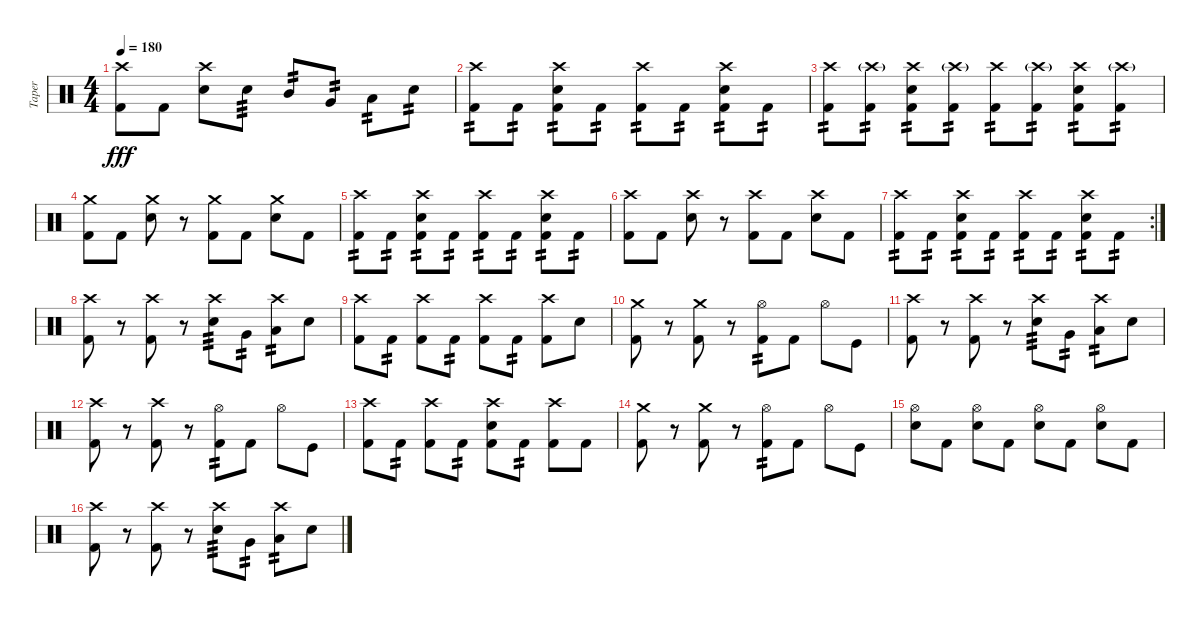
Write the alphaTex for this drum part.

\track ("Taper" "Taper") {instrument percussion}
\staff {score}
\articulation defaults
\ts (4 4)
\tempo 180
\clef neutral
\ks c
("Crash high (hit)" "Kick (hit) 2").8{dy fff} "Kick (hit) 2".8 ("Crash high (hit)" "Snare (hit) 2").8 "Snare (hit) 2".8{tp 3} "Mid Tom (hit)".8{tp 2} "Very Low Tom (hit)".8{tp 2} "Low Floor Tom (hit)".8{tp 2} "Snare (hit) 2".8{tp 2} |
("Crash high (hit)" "Kick (hit) 2").8{tp 2} "Kick (hit) 2".8{tp 2} ("Crash high (hit)" "Snare (hit) 2" "Kick (hit) 2").8{tp 2} "Kick (hit) 2".8{tp 2} ("Crash high (hit)" "Kick (hit) 2").8{tp 2} "Kick (hit) 2".8{tp 2} ("Crash high (hit)" "Snare (hit) 2" "Kick (hit) 2").8{tp 2} "Kick (hit) 2".8{tp 2} |
("Crash high (hit)" "Kick (hit) 2").8{tp 2} ("Crash high (hit)"{g} "Kick (hit) 2").8{tp 2} ("Crash high (hit)" "Snare (hit) 2" "Kick (hit) 2").8{tp 2} ("Crash high (hit)"{g} "Kick (hit) 2").8{tp 2} ("Crash high (hit)" "Kick (hit) 2").8{tp 2} ("Crash high (hit)"{g} "Kick (hit) 2").8{tp 2} ("Crash high (hit)" "Snare (hit) 2" "Kick (hit) 2").8{tp 2} ("Crash high (hit)"{g} "Kick (hit) 2").8{tp 2} |
("Crash medium (hit)" "Kick (hit) 2").8 "Kick (hit) 2".8 ("Crash medium (hit)" "Snare (hit) 2").8 r.8 ("Crash medium (hit)" "Kick (hit) 2").8 "Kick (hit) 2".8 ("Crash medium (hit)" "Snare (hit) 2").8 "Kick (hit) 2".8 |
("Crash high (hit)" "Kick (hit) 2").8{tp 2} "Kick (hit) 2".8{tp 2} ("Crash high (hit)" "Snare (hit) 2" "Kick (hit) 2").8{tp 2} "Kick (hit) 2".8{tp 2} ("Crash high (hit)" "Kick (hit) 2").8{tp 2} "Kick (hit) 2".8{tp 2} ("Crash high (hit)" "Snare (hit) 2" "Kick (hit) 2").8{tp 2} "Kick (hit) 2".8{tp 2} |
("Crash high (hit)" "Kick (hit) 2").8 "Kick (hit) 2".8 ("Crash high (hit)" "Snare (hit) 2").8 r.8 ("Crash high (hit)" "Kick (hit) 2").8 "Kick (hit) 2".8 ("Crash high (hit)" "Snare (hit) 2").8 "Kick (hit) 2".8 |
\rc 2
("Crash high (hit)" "Kick (hit) 2").8{tp 2} "Kick (hit) 2".8{tp 2} ("Crash high (hit)" "Snare (hit) 2" "Kick (hit) 2").8{tp 2} "Kick (hit) 2".8{tp 2} ("Crash high (hit)" "Kick (hit) 2").8{tp 2} "Kick (hit) 2".8{tp 2} ("Crash high (hit)" "Snare (hit) 2" "Kick (hit) 2").8{tp 2} "Kick (hit) 2".8{tp 2} |
("Crash high (hit)" "Kick (hit) 2").8 r.8 ("Crash high (hit)" "Kick (hit) 2").8 r.8 ("Crash high (hit)" "Snare (hit) 2").8{tp 3} "Very Low Tom (hit)".8{tp 2} ("Crash high (hit)" "Low Floor Tom (hit)").8{tp 2} "Snare (hit) 2".8 |
("Crash high (hit)" "Kick (hit) 2").8 "Kick (hit) 2".8{tp 2} ("Crash high (hit)" "Kick (hit) 2").8 "Kick (hit) 2".8{tp 2} ("Crash high (hit)" "Kick (hit) 2").8 "Kick (hit) 2".8{tp 2} ("Crash high (hit)" "Kick (hit) 2").8 "Snare (hit) 2".8 |
("Crash medium (hit)" "Kick (hit) 2").8 r.8 ("Crash medium (hit)" "Kick (hit) 2").8 r.8 ("Hi-Hat (open)" "Kick (hit) 2").8{tp 2} "Kick (hit) 2".8 "Hi-Hat (open)".8 "Kick (hit)".8 |
("Crash high (hit)" "Kick (hit) 2").8 r.8 ("Crash high (hit)" "Kick (hit) 2").8 r.8 ("Crash high (hit)" "Snare (hit) 2").8{tp 3} "Very Low Tom (hit)".8{tp 2} ("Crash high (hit)" "Low Floor Tom (hit)").8{tp 2} "Snare (hit) 2".8 |
("Crash high (hit)" "Kick (hit) 2").8 r.8 ("Crash high (hit)" "Kick (hit) 2").8 r.8 ("Hi-Hat (open)" "Kick (hit) 2").8{tp 2} "Kick (hit) 2".8 "Hi-Hat (open)".8 "Kick (hit)".8 |
("Crash high (hit)" "Kick (hit) 2").8 "Kick (hit) 2".8{tp 2} ("Crash high (hit)" "Kick (hit) 2").8 "Kick (hit) 2".8{tp 2} ("Crash high (hit)" "Snare (hit) 2" "Kick (hit) 2").8 "Kick (hit) 2".8{tp 2} ("Crash high (hit)" "Kick (hit) 2").8 "Kick (hit) 2".8 |
("Crash medium (hit)" "Kick (hit) 2").8 r.8 ("Crash medium (hit)" "Kick (hit) 2").8 r.8 ("Hi-Hat (open)" "Kick (hit) 2").8{tp 2} "Kick (hit) 2".8 "Hi-Hat (open)".8 "Kick (hit)".8 |
("Hi-Hat (open)" "Snare (hit) 2").8 "Kick (hit) 2".8 ("Hi-Hat (open)" "Snare (hit) 2").8 "Kick (hit) 2".8 ("Hi-Hat (open)" "Snare (hit) 2").8 "Kick (hit) 2".8 ("Hi-Hat (open)" "Snare (hit) 2").8 "Kick (hit) 2".8 |
("Crash high (hit)" "Kick (hit) 2").8 r.8 ("Crash high (hit)" "Kick (hit) 2").8 r.8 ("Crash high (hit)" "Snare (hit) 2").8{tp 3} "Very Low Tom (hit)".8{tp 2} ("Crash high (hit)" "Low Floor Tom (hit)").8{tp 2} "Snare (hit) 2".8
